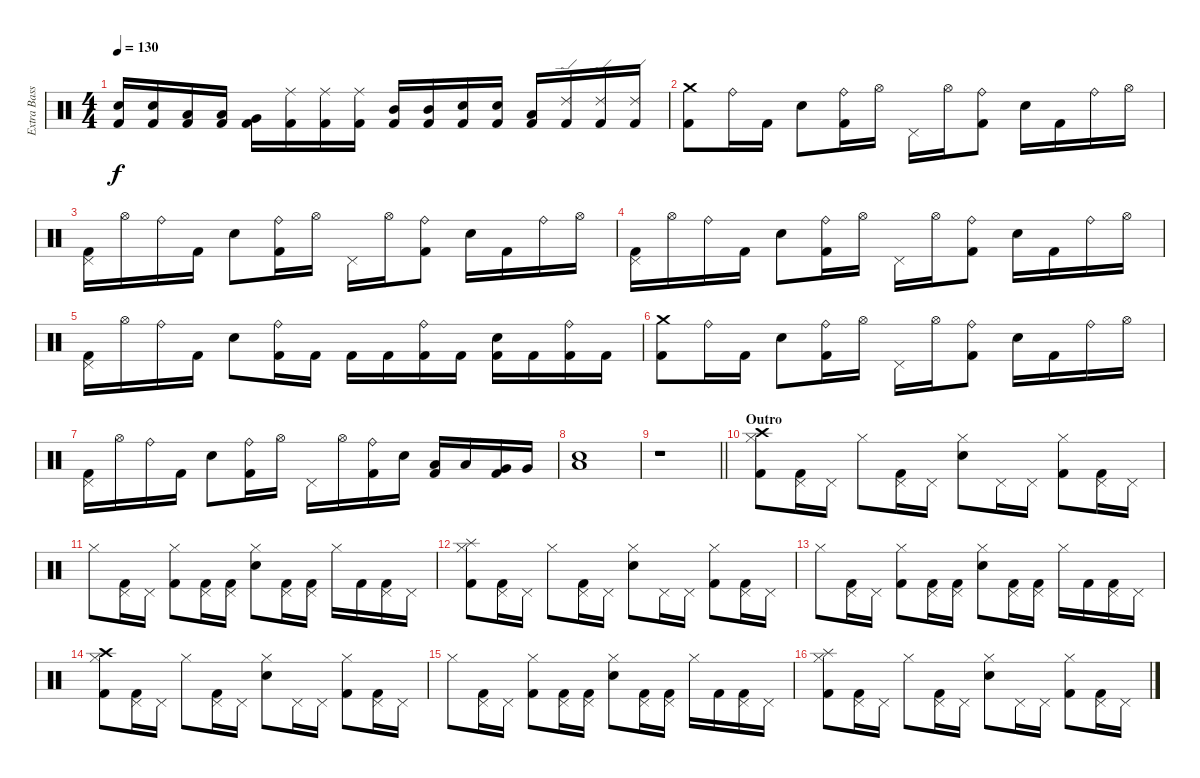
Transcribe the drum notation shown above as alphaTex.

\track ("Extra BassDrum" "Extra Bass") {instrument percussion}
\staff {score}
\articulation defaults
\ts (4 4)
\tempo 130
\clef neutral
\ks c
("Snare (hit) 2" "Kick (hit) 2").16{dy f} ("Snare (hit) 2" "Kick (hit) 2").16 ("Low Tom (hit)" "Kick (hit) 2").16 ("Low Tom (hit)" "Kick (hit) 2").16 ("Very Low Tom (hit)" "Kick (hit) 2").16 ("Ride (middle)" "Kick (hit) 2").16 ("Ride (middle)" "Kick (hit) 2").16 ("Ride (middle)" "Kick (hit) 2").16 ("Mid Tom (hit)" "Kick (hit) 2").16 ("Mid Tom (hit)" "Kick (hit) 2").16 ("Snare (hit) 2" "Kick (hit) 2").16 ("Snare (hit) 2" "Kick (hit) 2").16 ("Low Tom (hit)" "Kick (hit) 2").16 ("Ride (edge) 2" "Kick (hit) 2").16 ("Ride (edge) 2" "Kick (hit) 2").16 ("Ride (edge) 2" "Kick (hit) 2").16 |
("Crash medium (hit)" "Kick (hit) 2").8 "Ride (bell)".16 "Kick (hit) 2".16 "Snare (hit) 2".8 ("Ride (bell)" "Kick (hit) 2").16 "Hi-Hat (open)".16 "Pedal Hi-Hat (hit)".16 "Hi-Hat (open)".16 ("Ride (bell)" "Kick (hit) 2").8 "Snare (hit) 2".16 "Kick (hit) 2".16 "Ride (bell)".16 "Hi-Hat (open)".16 |
("Pedal Hi-Hat (hit)" "Kick (hit) 2").16 "Hi-Hat (open)".16 "Ride (bell)".16 "Kick (hit) 2".16 "Snare (hit) 2".8 ("Ride (bell)" "Kick (hit) 2").16 "Hi-Hat (open)".16 "Pedal Hi-Hat (hit)".16 "Hi-Hat (open)".16 ("Ride (bell)" "Kick (hit) 2").8 "Snare (hit) 2".16 "Kick (hit) 2".16 "Ride (bell)".16 "Hi-Hat (open)".16 |
("Pedal Hi-Hat (hit)" "Kick (hit) 2").16 "Hi-Hat (open)".16 "Ride (bell)".16 "Kick (hit) 2".16 "Snare (hit) 2".8 ("Ride (bell)" "Kick (hit) 2").16 "Hi-Hat (open)".16 "Pedal Hi-Hat (hit)".16 "Hi-Hat (open)".16 ("Ride (bell)" "Kick (hit) 2").8 "Snare (hit) 2".16 "Kick (hit) 2".16 "Ride (bell)".16 "Hi-Hat (open)".16 |
("Pedal Hi-Hat (hit)" "Kick (hit) 2").16 "Hi-Hat (open)".16 "Ride (bell)".16 "Kick (hit) 2".16 "Snare (hit) 2".8 ("Ride (bell)" "Kick (hit) 2").16 "Kick (hit) 2".16 "Kick (hit) 2".16 "Kick (hit) 2".16 ("Ride (bell)" "Kick (hit) 2").16 "Kick (hit) 2".16 ("Snare (hit) 2" "Kick (hit) 2").16 "Kick (hit) 2".16 ("Ride (bell)" "Kick (hit) 2").16 "Kick (hit) 2".16 |
("Crash medium (hit)" "Kick (hit) 2").8 "Ride (bell)".16 "Kick (hit) 2".16 "Snare (hit) 2".8 ("Ride (bell)" "Kick (hit) 2").16 "Hi-Hat (open)".16 "Pedal Hi-Hat (hit)".16 "Hi-Hat (open)".16 ("Ride (bell)" "Kick (hit) 2").8 "Snare (hit) 2".16 "Kick (hit) 2".16 "Ride (bell)".16 "Hi-Hat (open)".16 |
("Pedal Hi-Hat (hit)" "Kick (hit) 2").16 "Hi-Hat (open)".16 "Ride (bell)".16 "Kick (hit) 2".16 "Snare (hit) 2".8 ("Ride (bell)" "Kick (hit) 2").16 "Hi-Hat (open)".16 "Pedal Hi-Hat (hit)".16 "Hi-Hat (open)".16 ("Ride (bell)" "Kick (hit) 2").16 "Snare (hit) 2".16 ("Low Tom (hit)" "Kick (hit) 2").16 "Low Tom (hit)".16 ("Very Low Tom (hit)" "Kick (hit) 2").16 "Very Low Tom (hit)".16 |
("Low Floor Tom (hit)" "Snare (hit) 2").1 |
\barLineRight lightlight
r.1 |
\section ("" "Outro")
("Crash high (hit)" "Hi-Hat (closed)" "Kick (hit) 2").8 ("Pedal Hi-Hat (hit)" "Kick (hit) 2").16 "Pedal Hi-Hat (hit)".16 "Hi-Hat (closed)".8 ("Pedal Hi-Hat (hit)" "Kick (hit) 2").16 "Pedal Hi-Hat (hit)".16 ("Hi-Hat (closed)" "Snare (hit) 2").8 "Pedal Hi-Hat (hit)".16 "Pedal Hi-Hat (hit)".16 ("Hi-Hat (closed)" "Kick (hit) 2").8 ("Pedal Hi-Hat (hit)" "Kick (hit) 2").16 "Pedal Hi-Hat (hit)".16 |
"Hi-Hat (closed)".8 ("Pedal Hi-Hat (hit)" "Kick (hit) 2").16 "Pedal Hi-Hat (hit)".16 ("Hi-Hat (closed)" "Kick (hit) 2").8 ("Pedal Hi-Hat (hit)" "Kick (hit) 2").16 ("Pedal Hi-Hat (hit)" "Kick (hit) 2").16 ("Hi-Hat (closed)" "Snare (hit) 2").8 ("Pedal Hi-Hat (hit)" "Kick (hit) 2").16 ("Pedal Hi-Hat (hit)" "Kick (hit) 2").16 "Hi-Hat (closed)".16 "Kick (hit) 2".16 ("Pedal Hi-Hat (hit)" "Kick (hit) 2").16 "Pedal Hi-Hat (hit)".16 |
("Splash (hit)" "Hi-Hat (closed)" "Kick (hit) 2").8 ("Pedal Hi-Hat (hit)" "Kick (hit) 2").16 "Pedal Hi-Hat (hit)".16 "Hi-Hat (closed)".8 ("Pedal Hi-Hat (hit)" "Kick (hit) 2").16 "Pedal Hi-Hat (hit)".16 ("Hi-Hat (closed)" "Snare (hit) 2").8 "Pedal Hi-Hat (hit)".16 "Pedal Hi-Hat (hit)".16 ("Hi-Hat (closed)" "Kick (hit) 2").8 ("Pedal Hi-Hat (hit)" "Kick (hit) 2").16 "Pedal Hi-Hat (hit)".16 |
"Hi-Hat (closed)".8 ("Pedal Hi-Hat (hit)" "Kick (hit) 2").16 "Pedal Hi-Hat (hit)".16 ("Hi-Hat (closed)" "Kick (hit) 2").8 ("Pedal Hi-Hat (hit)" "Kick (hit) 2").16 ("Pedal Hi-Hat (hit)" "Kick (hit) 2").16 ("Hi-Hat (closed)" "Snare (hit) 2").8 ("Pedal Hi-Hat (hit)" "Kick (hit) 2").16 ("Pedal Hi-Hat (hit)" "Kick (hit) 2").16 "Hi-Hat (closed)".16 "Kick (hit) 2".16 ("Pedal Hi-Hat (hit)" "Kick (hit) 2").16 "Pedal Hi-Hat (hit)".16 |
("Crash high (hit)" "Hi-Hat (closed)" "Kick (hit) 2").8 ("Pedal Hi-Hat (hit)" "Kick (hit) 2").16 "Pedal Hi-Hat (hit)".16 "Hi-Hat (closed)".8 ("Pedal Hi-Hat (hit)" "Kick (hit) 2").16 "Pedal Hi-Hat (hit)".16 ("Hi-Hat (closed)" "Snare (hit) 2").8 "Pedal Hi-Hat (hit)".16 "Pedal Hi-Hat (hit)".16 ("Hi-Hat (closed)" "Kick (hit) 2").8 ("Pedal Hi-Hat (hit)" "Kick (hit) 2").16 "Pedal Hi-Hat (hit)".16 |
"Hi-Hat (closed)".8 ("Pedal Hi-Hat (hit)" "Kick (hit) 2").16 "Pedal Hi-Hat (hit)".16 ("Hi-Hat (closed)" "Kick (hit) 2").8 ("Pedal Hi-Hat (hit)" "Kick (hit) 2").16 ("Pedal Hi-Hat (hit)" "Kick (hit) 2").16 ("Hi-Hat (closed)" "Snare (hit) 2").8 ("Pedal Hi-Hat (hit)" "Kick (hit) 2").16 ("Pedal Hi-Hat (hit)" "Kick (hit) 2").16 "Hi-Hat (closed)".16 "Kick (hit) 2".16 ("Pedal Hi-Hat (hit)" "Kick (hit) 2").16 "Pedal Hi-Hat (hit)".16 |
("Splash (hit)" "Hi-Hat (closed)" "Kick (hit) 2").8 ("Pedal Hi-Hat (hit)" "Kick (hit) 2").16 "Pedal Hi-Hat (hit)".16 "Hi-Hat (closed)".8 ("Pedal Hi-Hat (hit)" "Kick (hit) 2").16 "Pedal Hi-Hat (hit)".16 ("Hi-Hat (closed)" "Snare (hit) 2").8 "Pedal Hi-Hat (hit)".16 "Pedal Hi-Hat (hit)".16 ("Hi-Hat (closed)" "Kick (hit) 2").8 ("Pedal Hi-Hat (hit)" "Kick (hit) 2").16 "Pedal Hi-Hat (hit)".16
